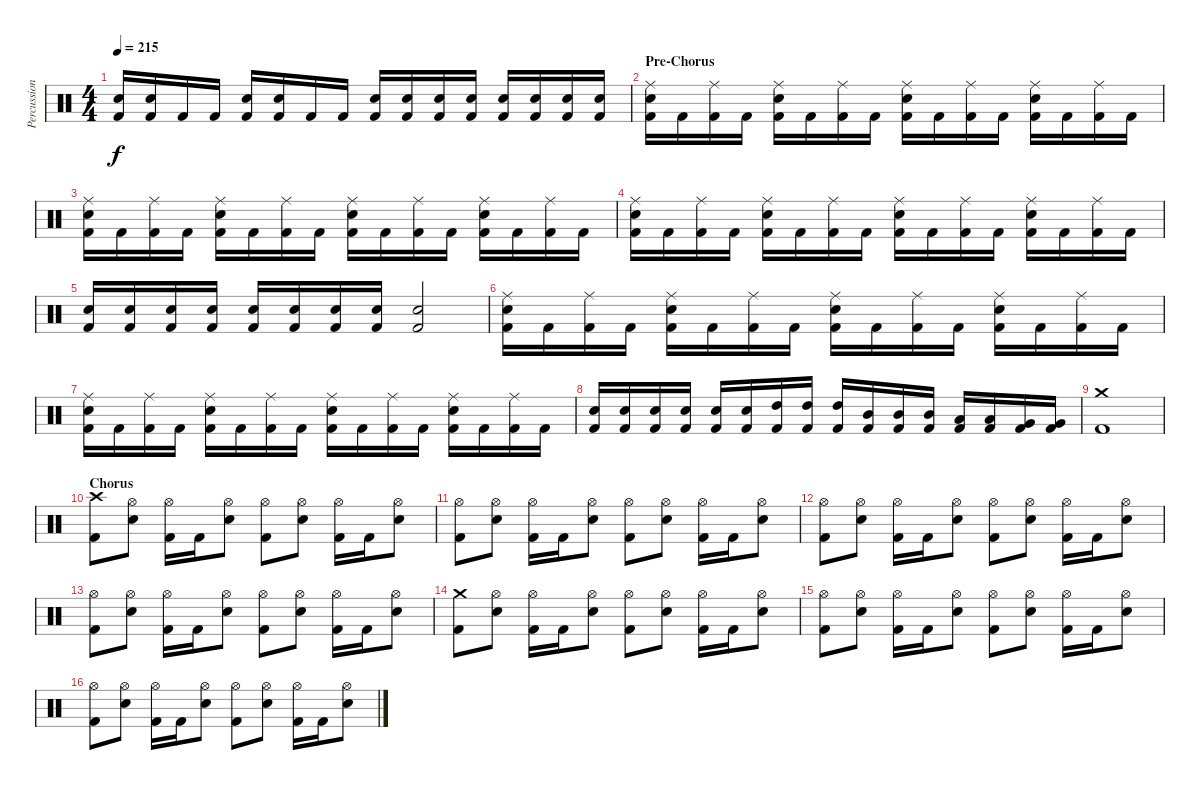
\track ("Percussion" "Percussion") {instrument percussion}
\staff {score}
\articulation defaults
\ts (4 4)
\tempo 215
\clef neutral
\ks c
("Snare (hit) 2" "Kick (hit) 2").16{dy f} ("Snare (hit) 2" "Kick (hit) 2").16 "Kick (hit) 2".16 "Kick (hit) 2".16 ("Snare (hit) 2" "Kick (hit) 2").16 ("Snare (hit) 2" "Kick (hit) 2").16 "Kick (hit) 2".16 "Kick (hit) 2".16 ("Snare (hit) 2" "Kick (hit) 2").16 ("Snare (hit) 2" "Kick (hit) 2").16 ("Snare (hit) 2" "Kick (hit) 2").16 ("Snare (hit) 2" "Kick (hit) 2").16 ("Snare (hit) 2" "Kick (hit) 2").16 ("Snare (hit) 2" "Kick (hit) 2").16 ("Snare (hit) 2" "Kick (hit) 2").16 ("Snare (hit) 2" "Kick (hit) 2").16 |
\section ("" "Pre-Chorus")
("Ride (middle)" "Snare (hit) 2" "Kick (hit) 2").16 "Kick (hit) 2".16 ("Ride (middle)" "Kick (hit) 2").16 "Kick (hit) 2".16 ("Ride (middle)" "Snare (hit) 2" "Kick (hit) 2").16 "Kick (hit) 2".16 ("Ride (middle)" "Kick (hit) 2").16 "Kick (hit) 2".16 ("Ride (middle)" "Snare (hit) 2" "Kick (hit) 2").16 "Kick (hit) 2".16 ("Ride (middle)" "Kick (hit) 2").16 "Kick (hit) 2".16 ("Ride (middle)" "Snare (hit) 2" "Kick (hit) 2").16 "Kick (hit) 2".16 ("Ride (middle)" "Kick (hit) 2").16 "Kick (hit) 2".16 |
("Ride (middle)" "Snare (hit) 2" "Kick (hit) 2").16 "Kick (hit) 2".16 ("Ride (middle)" "Kick (hit) 2").16 "Kick (hit) 2".16 ("Ride (middle)" "Snare (hit) 2" "Kick (hit) 2").16 "Kick (hit) 2".16 ("Ride (middle)" "Kick (hit) 2").16 "Kick (hit) 2".16 ("Ride (middle)" "Snare (hit) 2" "Kick (hit) 2").16 "Kick (hit) 2".16 ("Ride (middle)" "Kick (hit) 2").16 "Kick (hit) 2".16 ("Ride (middle)" "Snare (hit) 2" "Kick (hit) 2").16 "Kick (hit) 2".16 ("Ride (middle)" "Kick (hit) 2").16 "Kick (hit) 2".16 |
("Ride (middle)" "Snare (hit) 2" "Kick (hit) 2").16 "Kick (hit) 2".16 ("Ride (middle)" "Kick (hit) 2").16 "Kick (hit) 2".16 ("Ride (middle)" "Snare (hit) 2" "Kick (hit) 2").16 "Kick (hit) 2".16 ("Ride (middle)" "Kick (hit) 2").16 "Kick (hit) 2".16 ("Ride (middle)" "Snare (hit) 2" "Kick (hit) 2").16 "Kick (hit) 2".16 ("Ride (middle)" "Kick (hit) 2").16 "Kick (hit) 2".16 ("Ride (middle)" "Snare (hit) 2" "Kick (hit) 2").16 "Kick (hit) 2".16 ("Ride (middle)" "Kick (hit) 2").16 "Kick (hit) 2".16 |
("Snare (hit) 2" "Kick (hit) 2").16 ("Snare (hit) 2" "Kick (hit) 2").16 ("Snare (hit) 2" "Kick (hit) 2").16 ("Snare (hit) 2" "Kick (hit) 2").16 ("Snare (hit) 2" "Kick (hit) 2").16 ("Snare (hit) 2" "Kick (hit) 2").16 ("Snare (hit) 2" "Kick (hit) 2").16 ("Snare (hit) 2" "Kick (hit) 2").16 ("Snare (hit) 2" "Kick (hit) 2").2 |
("Ride (middle)" "Snare (hit) 2" "Kick (hit) 2").16 "Kick (hit) 2".16 ("Ride (middle)" "Kick (hit) 2").16 "Kick (hit) 2".16 ("Ride (middle)" "Snare (hit) 2" "Kick (hit) 2").16 "Kick (hit) 2".16 ("Ride (middle)" "Kick (hit) 2").16 "Kick (hit) 2".16 ("Ride (middle)" "Snare (hit) 2" "Kick (hit) 2").16 "Kick (hit) 2".16 ("Ride (middle)" "Kick (hit) 2").16 "Kick (hit) 2".16 ("Ride (middle)" "Snare (hit) 2" "Kick (hit) 2").16 "Kick (hit) 2".16 ("Ride (middle)" "Kick (hit) 2").16 "Kick (hit) 2".16 |
("Ride (middle)" "Snare (hit) 2" "Kick (hit) 2").16 "Kick (hit) 2".16 ("Ride (middle)" "Kick (hit) 2").16 "Kick (hit) 2".16 ("Ride (middle)" "Snare (hit) 2" "Kick (hit) 2").16 "Kick (hit) 2".16 ("Ride (middle)" "Kick (hit) 2").16 "Kick (hit) 2".16 ("Ride (middle)" "Snare (hit) 2" "Kick (hit) 2").16 "Kick (hit) 2".16 ("Ride (middle)" "Kick (hit) 2").16 "Kick (hit) 2".16 ("Ride (middle)" "Snare (hit) 2" "Kick (hit) 2").16 "Kick (hit) 2".16 ("Ride (middle)" "Kick (hit) 2").16 "Kick (hit) 2".16 |
("Snare (hit) 2" "Kick (hit) 2").16 ("Snare (hit) 2" "Kick (hit) 2").16 ("Snare (hit) 2" "Kick (hit) 2").16 ("Snare (hit) 2" "Kick (hit) 2").16 ("Snare (hit) 2" "Kick (hit) 2").16 ("Snare (hit) 2" "Kick (hit) 2").16 ("High Tom (hit)" "Kick (hit) 2").16 ("High Tom (hit)" "Kick (hit) 2").16 ("High Tom (hit)" "Kick (hit) 2").16 ("Mid Tom (hit)" "Kick (hit) 2").16 ("Mid Tom (hit)" "Kick (hit) 2").16 ("Mid Tom (hit)" "Kick (hit) 2").16 ("Low Tom (hit)" "Kick (hit) 2").16 ("Low Tom (hit)" "Kick (hit) 2").16 ("Very Low Tom (hit)" "Kick (hit) 2").16 ("Very Low Tom (hit)" "Kick (hit) 2").16 |
("Crash medium (hit)" "Kick (hit) 2").1 |
\section ("" "Chorus")
("Crash high (hit)" "Kick (hit) 2").8 ("Hi-Hat (open)" "Snare (hit) 2").8 ("Hi-Hat (open)" "Kick (hit) 2").16 "Kick (hit) 2".16 ("Hi-Hat (open)" "Snare (hit) 2").8 ("Hi-Hat (open)" "Kick (hit) 2").8 ("Hi-Hat (open)" "Snare (hit) 2").8 ("Hi-Hat (open)" "Kick (hit) 2").16 "Kick (hit) 2".16 ("Hi-Hat (open)" "Snare (hit) 2").8 |
("Hi-Hat (open)" "Kick (hit) 2").8 ("Hi-Hat (open)" "Snare (hit) 2").8 ("Hi-Hat (open)" "Kick (hit) 2").16 "Kick (hit) 2".16 ("Hi-Hat (open)" "Snare (hit) 2").8 ("Hi-Hat (open)" "Kick (hit) 2").8 ("Hi-Hat (open)" "Snare (hit) 2").8 ("Hi-Hat (open)" "Kick (hit) 2").16 "Kick (hit) 2".16 ("Hi-Hat (open)" "Snare (hit) 2").8 |
("Hi-Hat (open)" "Kick (hit) 2").8 ("Hi-Hat (open)" "Snare (hit) 2").8 ("Hi-Hat (open)" "Kick (hit) 2").16 "Kick (hit) 2".16 ("Hi-Hat (open)" "Snare (hit) 2").8 ("Hi-Hat (open)" "Kick (hit) 2").8 ("Hi-Hat (open)" "Snare (hit) 2").8 ("Hi-Hat (open)" "Kick (hit) 2").16 "Kick (hit) 2".16 ("Hi-Hat (open)" "Snare (hit) 2").8 |
("Hi-Hat (open)" "Kick (hit) 2").8 ("Hi-Hat (open)" "Snare (hit) 2").8 ("Hi-Hat (open)" "Kick (hit) 2").16 "Kick (hit) 2".16 ("Hi-Hat (open)" "Snare (hit) 2").8 ("Hi-Hat (open)" "Kick (hit) 2").8 ("Hi-Hat (open)" "Snare (hit) 2").8 ("Hi-Hat (open)" "Kick (hit) 2").16 "Kick (hit) 2".16 ("Hi-Hat (open)" "Snare (hit) 2").8 |
("Crash medium (hit)" "Kick (hit) 2").8 ("Hi-Hat (open)" "Snare (hit) 2").8 ("Hi-Hat (open)" "Kick (hit) 2").16 "Kick (hit) 2".16 ("Hi-Hat (open)" "Snare (hit) 2").8 ("Hi-Hat (open)" "Kick (hit) 2").8 ("Hi-Hat (open)" "Snare (hit) 2").8 ("Hi-Hat (open)" "Kick (hit) 2").16 "Kick (hit) 2".16 ("Hi-Hat (open)" "Snare (hit) 2").8 |
("Hi-Hat (open)" "Kick (hit) 2").8 ("Hi-Hat (open)" "Snare (hit) 2").8 ("Hi-Hat (open)" "Kick (hit) 2").16 "Kick (hit) 2".16 ("Hi-Hat (open)" "Snare (hit) 2").8 ("Hi-Hat (open)" "Kick (hit) 2").8 ("Hi-Hat (open)" "Snare (hit) 2").8 ("Hi-Hat (open)" "Kick (hit) 2").16 "Kick (hit) 2".16 ("Hi-Hat (open)" "Snare (hit) 2").8 |
("Hi-Hat (open)" "Kick (hit) 2").8 ("Hi-Hat (open)" "Snare (hit) 2").8 ("Hi-Hat (open)" "Kick (hit) 2").16 "Kick (hit) 2".16 ("Hi-Hat (open)" "Snare (hit) 2").8 ("Hi-Hat (open)" "Kick (hit) 2").8 ("Hi-Hat (open)" "Snare (hit) 2").8 ("Hi-Hat (open)" "Kick (hit) 2").16 "Kick (hit) 2".16 ("Hi-Hat (open)" "Snare (hit) 2").8
